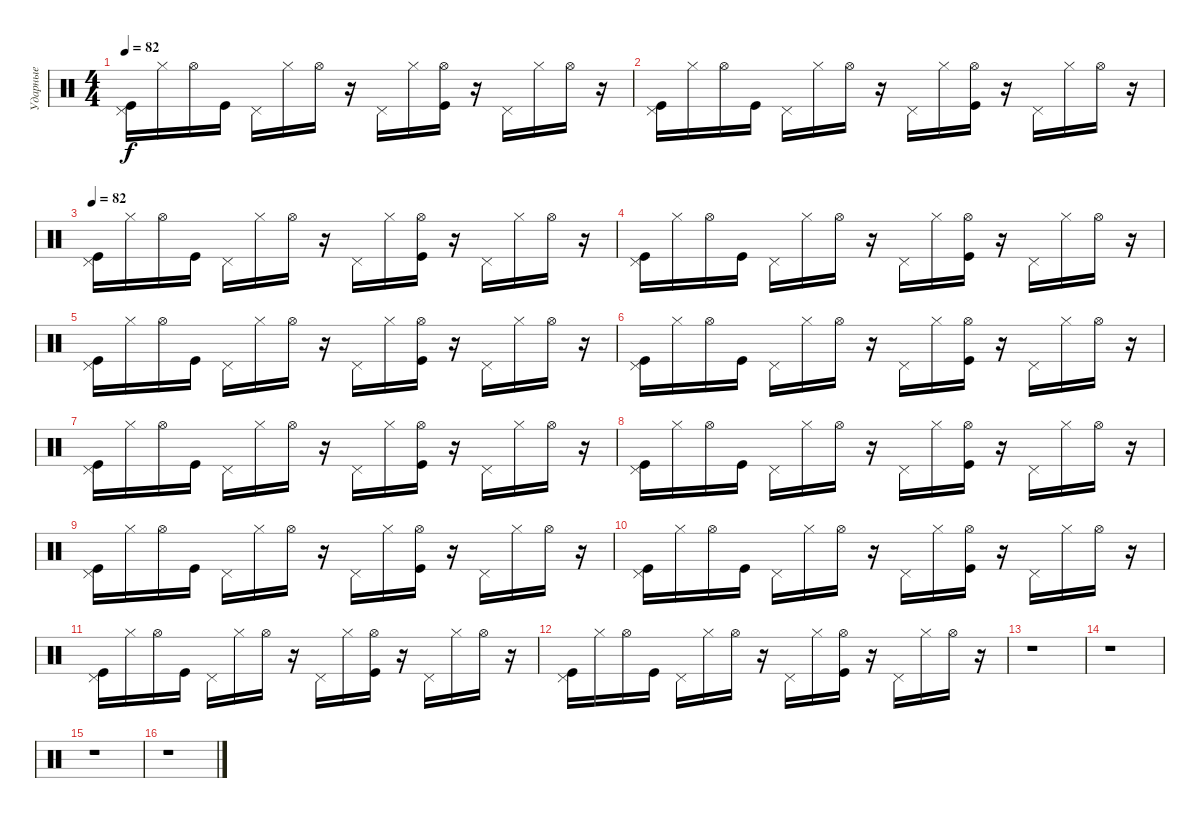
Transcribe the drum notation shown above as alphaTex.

\track ("Ударные" "Ударные") {instrument percussion}
\staff {score}
\articulation defaults
\ts (4 4)
\tempo 82
\clef neutral
\ks c
("Kick (hit)" "Pedal Hi-Hat (hit)").16{dy f} "Hi-Hat (closed)".16 "Hi-Hat (open)".16 "Kick (hit)".16 "Pedal Hi-Hat (hit)".16 "Hi-Hat (closed)".16 "Hi-Hat (open)".16 r.16 "Pedal Hi-Hat (hit)".16 "Hi-Hat (closed)".16 ("Hi-Hat (open)" "Kick (hit)").16 r.16 "Pedal Hi-Hat (hit)".16 "Hi-Hat (closed)".16 "Hi-Hat (open)".16 r.16 |
("Kick (hit)" "Pedal Hi-Hat (hit)").16 "Hi-Hat (closed)".16 "Hi-Hat (open)".16 "Kick (hit)".16 "Pedal Hi-Hat (hit)".16 "Hi-Hat (closed)".16 "Hi-Hat (open)".16 r.16 "Pedal Hi-Hat (hit)".16 "Hi-Hat (closed)".16 ("Hi-Hat (open)" "Kick (hit)").16 r.16 "Pedal Hi-Hat (hit)".16 "Hi-Hat (closed)".16 "Hi-Hat (open)".16 r.16 |
\tempo 82
("Kick (hit)" "Pedal Hi-Hat (hit)").16 "Hi-Hat (closed)".16 "Hi-Hat (open)".16 "Kick (hit)".16 "Pedal Hi-Hat (hit)".16 "Hi-Hat (closed)".16 "Hi-Hat (open)".16 r.16 "Pedal Hi-Hat (hit)".16 "Hi-Hat (closed)".16 ("Hi-Hat (open)" "Kick (hit)").16 r.16 "Pedal Hi-Hat (hit)".16 "Hi-Hat (closed)".16 "Hi-Hat (open)".16 r.16 |
("Kick (hit)" "Pedal Hi-Hat (hit)").16 "Hi-Hat (closed)".16 "Hi-Hat (open)".16 "Kick (hit)".16 "Pedal Hi-Hat (hit)".16 "Hi-Hat (closed)".16 "Hi-Hat (open)".16 r.16 "Pedal Hi-Hat (hit)".16 "Hi-Hat (closed)".16 ("Hi-Hat (open)" "Kick (hit)").16 r.16 "Pedal Hi-Hat (hit)".16 "Hi-Hat (closed)".16 "Hi-Hat (open)".16 r.16 |
("Kick (hit)" "Pedal Hi-Hat (hit)").16 "Hi-Hat (closed)".16 "Hi-Hat (open)".16 "Kick (hit)".16 "Pedal Hi-Hat (hit)".16 "Hi-Hat (closed)".16 "Hi-Hat (open)".16 r.16 "Pedal Hi-Hat (hit)".16 "Hi-Hat (closed)".16 ("Hi-Hat (open)" "Kick (hit)").16 r.16 "Pedal Hi-Hat (hit)".16 "Hi-Hat (closed)".16 "Hi-Hat (open)".16 r.16 |
("Kick (hit)" "Pedal Hi-Hat (hit)").16 "Hi-Hat (closed)".16 "Hi-Hat (open)".16 "Kick (hit)".16 "Pedal Hi-Hat (hit)".16 "Hi-Hat (closed)".16 "Hi-Hat (open)".16 r.16 "Pedal Hi-Hat (hit)".16 "Hi-Hat (closed)".16 ("Hi-Hat (open)" "Kick (hit)").16 r.16 "Pedal Hi-Hat (hit)".16 "Hi-Hat (closed)".16 "Hi-Hat (open)".16 r.16 |
("Kick (hit)" "Pedal Hi-Hat (hit)").16 "Hi-Hat (closed)".16 "Hi-Hat (open)".16 "Kick (hit)".16 "Pedal Hi-Hat (hit)".16 "Hi-Hat (closed)".16 "Hi-Hat (open)".16 r.16 "Pedal Hi-Hat (hit)".16 "Hi-Hat (closed)".16 ("Hi-Hat (open)" "Kick (hit)").16 r.16 "Pedal Hi-Hat (hit)".16 "Hi-Hat (closed)".16 "Hi-Hat (open)".16 r.16 |
("Kick (hit)" "Pedal Hi-Hat (hit)").16 "Hi-Hat (closed)".16 "Hi-Hat (open)".16 "Kick (hit)".16 "Pedal Hi-Hat (hit)".16 "Hi-Hat (closed)".16 "Hi-Hat (open)".16 r.16 "Pedal Hi-Hat (hit)".16 "Hi-Hat (closed)".16 ("Hi-Hat (open)" "Kick (hit)").16 r.16 "Pedal Hi-Hat (hit)".16 "Hi-Hat (closed)".16 "Hi-Hat (open)".16 r.16 |
("Kick (hit)" "Pedal Hi-Hat (hit)").16 "Hi-Hat (closed)".16 "Hi-Hat (open)".16 "Kick (hit)".16 "Pedal Hi-Hat (hit)".16 "Hi-Hat (closed)".16 "Hi-Hat (open)".16 r.16 "Pedal Hi-Hat (hit)".16 "Hi-Hat (closed)".16 ("Hi-Hat (open)" "Kick (hit)").16 r.16 "Pedal Hi-Hat (hit)".16 "Hi-Hat (closed)".16 "Hi-Hat (open)".16 r.16 |
("Kick (hit)" "Pedal Hi-Hat (hit)").16 "Hi-Hat (closed)".16 "Hi-Hat (open)".16 "Kick (hit)".16 "Pedal Hi-Hat (hit)".16 "Hi-Hat (closed)".16 "Hi-Hat (open)".16 r.16 "Pedal Hi-Hat (hit)".16 "Hi-Hat (closed)".16 ("Hi-Hat (open)" "Kick (hit)").16 r.16 "Pedal Hi-Hat (hit)".16 "Hi-Hat (closed)".16 "Hi-Hat (open)".16 r.16 |
("Kick (hit)" "Pedal Hi-Hat (hit)").16 "Hi-Hat (closed)".16 "Hi-Hat (open)".16 "Kick (hit)".16 "Pedal Hi-Hat (hit)".16 "Hi-Hat (closed)".16 "Hi-Hat (open)".16 r.16 "Pedal Hi-Hat (hit)".16 "Hi-Hat (closed)".16 ("Hi-Hat (open)" "Kick (hit)").16 r.16 "Pedal Hi-Hat (hit)".16 "Hi-Hat (closed)".16 "Hi-Hat (open)".16 r.16 |
("Kick (hit)" "Pedal Hi-Hat (hit)").16 "Hi-Hat (closed)".16 "Hi-Hat (open)".16 "Kick (hit)".16 "Pedal Hi-Hat (hit)".16 "Hi-Hat (closed)".16 "Hi-Hat (open)".16 r.16 "Pedal Hi-Hat (hit)".16 "Hi-Hat (closed)".16 ("Hi-Hat (open)" "Kick (hit)").16 r.16 "Pedal Hi-Hat (hit)".16 "Hi-Hat (closed)".16 "Hi-Hat (open)".16 r.16 |
r.1 |
r.1 |
r.1 |
r.1
